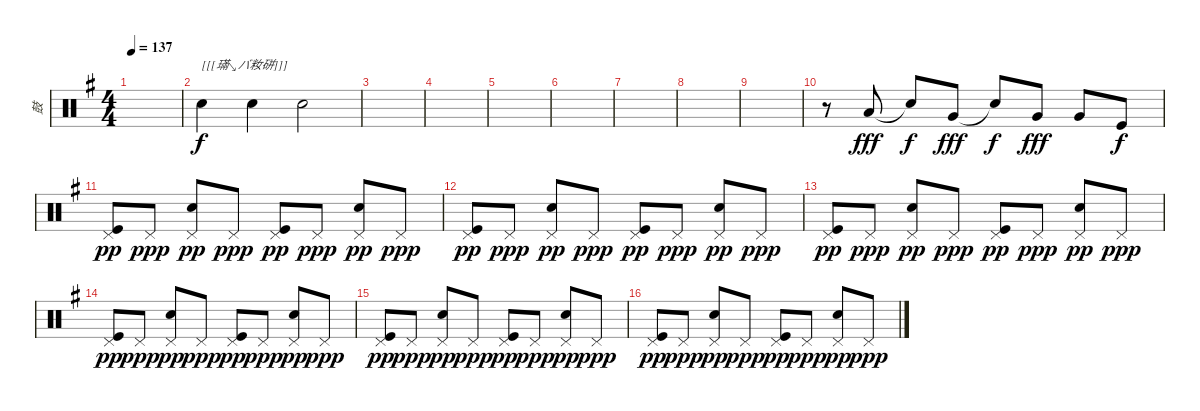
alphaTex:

\track ("鼓" "鼓") {instrument percussion}
\staff {score}
\articulation defaults
\ts (4 4)
\tempo 137
\clef neutral
\ks g
|
"Hand Clap (hit)".4{txt "[[[璊↘バ籹硑]]]"} "Hand Clap (hit)".4 "Hand Clap (hit)".2 |
|
|
|
|
|
|
|
r.8 "Low Tom (hit)".8{dy fff} "Snare (hit)"{t}.8{dy f} "Very Low Tom (hit)".8{dy fff} "Snare (hit)"{t}.8{dy f} "Very Low Tom (hit)".8{dy fff} "Very Low Tom (hit)".8 "Kick (hit)".8{dy f} |
("Kick (hit)" "Pedal Hi-Hat (hit)").8{dy pp} "Pedal Hi-Hat (hit)".8{dy ppp} ("Snare (hit) 2" "Pedal Hi-Hat (hit)").8{dy pp} "Pedal Hi-Hat (hit)".8{dy ppp} ("Kick (hit)" "Pedal Hi-Hat (hit)").8{dy pp} "Pedal Hi-Hat (hit)".8{dy ppp} ("Snare (hit) 2" "Pedal Hi-Hat (hit)").8{dy pp} "Pedal Hi-Hat (hit)".8{dy ppp} |
("Kick (hit)" "Pedal Hi-Hat (hit)").8{dy pp} "Pedal Hi-Hat (hit)".8{dy ppp} ("Snare (hit) 2" "Pedal Hi-Hat (hit)").8{dy pp} "Pedal Hi-Hat (hit)".8{dy ppp} ("Kick (hit)" "Pedal Hi-Hat (hit)").8{dy pp} "Pedal Hi-Hat (hit)".8{dy ppp} ("Snare (hit) 2" "Pedal Hi-Hat (hit)").8{dy pp} "Pedal Hi-Hat (hit)".8{dy ppp} |
("Kick (hit)" "Pedal Hi-Hat (hit)").8{dy pp} "Pedal Hi-Hat (hit)".8{dy ppp} ("Snare (hit) 2" "Pedal Hi-Hat (hit)").8{dy pp} "Pedal Hi-Hat (hit)".8{dy ppp} ("Kick (hit)" "Pedal Hi-Hat (hit)").8{dy pp} "Pedal Hi-Hat (hit)".8{dy ppp} ("Snare (hit) 2" "Pedal Hi-Hat (hit)").8{dy pp} "Pedal Hi-Hat (hit)".8{dy ppp} |
("Kick (hit)" "Pedal Hi-Hat (hit)").8{dy pp} "Pedal Hi-Hat (hit)".8{dy ppp} ("Snare (hit) 2" "Pedal Hi-Hat (hit)").8{dy pp} "Pedal Hi-Hat (hit)".8{dy ppp} ("Kick (hit)" "Pedal Hi-Hat (hit)").8{dy pp} "Pedal Hi-Hat (hit)".8{dy ppp} ("Snare (hit) 2" "Pedal Hi-Hat (hit)").8{dy pp} "Pedal Hi-Hat (hit)".8{dy ppp} |
("Kick (hit)" "Pedal Hi-Hat (hit)").8{dy pp} "Pedal Hi-Hat (hit)".8{dy ppp} ("Snare (hit) 2" "Pedal Hi-Hat (hit)").8{dy pp} "Pedal Hi-Hat (hit)".8{dy ppp} ("Kick (hit)" "Pedal Hi-Hat (hit)").8{dy pp} "Pedal Hi-Hat (hit)".8{dy ppp} ("Snare (hit) 2" "Pedal Hi-Hat (hit)").8{dy pp} "Pedal Hi-Hat (hit)".8{dy ppp} |
("Kick (hit)" "Pedal Hi-Hat (hit)").8{dy pp} "Pedal Hi-Hat (hit)".8{dy ppp} ("Snare (hit) 2" "Pedal Hi-Hat (hit)").8{dy pp} "Pedal Hi-Hat (hit)".8{dy ppp} ("Kick (hit)" "Pedal Hi-Hat (hit)").8{dy pp} "Pedal Hi-Hat (hit)".8{dy ppp} ("Snare (hit) 2" "Pedal Hi-Hat (hit)").8{dy pp} "Pedal Hi-Hat (hit)".8{dy ppp}
